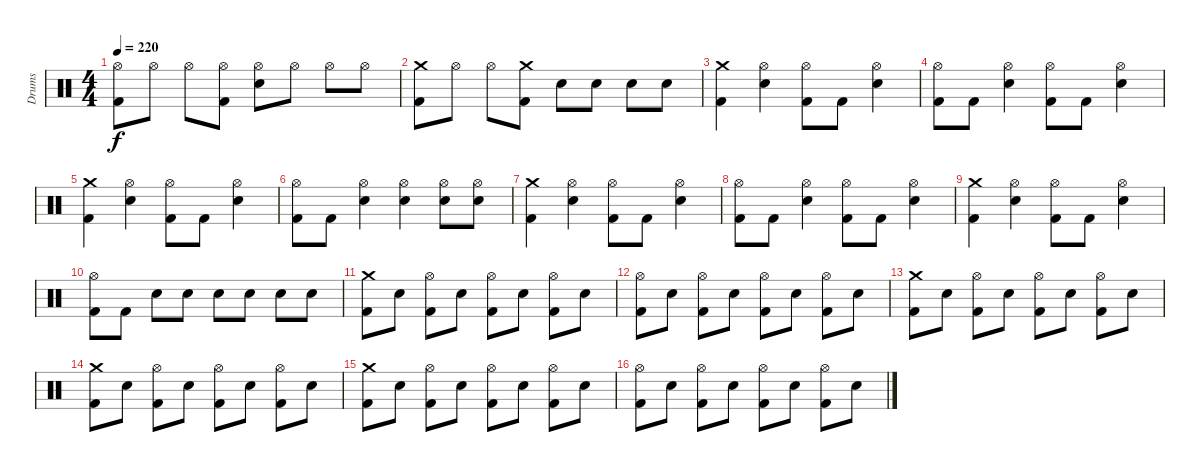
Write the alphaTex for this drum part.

\track ("Drums" "Drums") {instrument percussion}
\staff {score}
\articulation defaults
\ts (4 4)
\tempo 220
\clef neutral
\ks c
("Kick (hit) 2" "Hi-Hat (open)").8{dy f} "Hi-Hat (open)".8 "Hi-Hat (open)".8 ("Kick (hit) 2" "Hi-Hat (open)").8 ("Electric Snare (hit)" "Hi-Hat (open)").8 "Hi-Hat (open)".8 "Hi-Hat (open)".8 "Hi-Hat (open)".8 |
("Kick (hit) 2" "Crash medium (hit)").8 "Hi-Hat (open)".8 "Hi-Hat (open)".8 ("Kick (hit) 2" "Crash medium (hit)").8 "Electric Snare (hit)".8 "Electric Snare (hit)".8 "Electric Snare (hit)".8 "Electric Snare (hit)".8 |
("Crash medium (hit)" "Kick (hit) 2").4 ("Hi-Hat (open)" "Electric Snare (hit)").4 ("Hi-Hat (open)" "Kick (hit) 2").8 "Kick (hit) 2".8 ("Hi-Hat (open)" "Electric Snare (hit)").4 |
("Hi-Hat (open)" "Kick (hit) 2").8 "Kick (hit) 2".8 ("Hi-Hat (open)" "Electric Snare (hit)").4 ("Hi-Hat (open)" "Kick (hit) 2").8 "Kick (hit) 2".8 ("Hi-Hat (open)" "Electric Snare (hit)").4 |
("Crash medium (hit)" "Kick (hit) 2").4 ("Hi-Hat (open)" "Electric Snare (hit)").4 ("Hi-Hat (open)" "Kick (hit) 2").8 "Kick (hit) 2".8 ("Hi-Hat (open)" "Electric Snare (hit)").4 |
("Hi-Hat (open)" "Kick (hit) 2").8 "Kick (hit) 2".8 ("Hi-Hat (open)" "Electric Snare (hit)").4 ("Hi-Hat (open)" "Electric Snare (hit)").4 ("Hi-Hat (open)" "Electric Snare (hit)").8 ("Hi-Hat (open)" "Electric Snare (hit)").8 |
("Crash medium (hit)" "Kick (hit) 2").4 ("Hi-Hat (open)" "Electric Snare (hit)").4 ("Hi-Hat (open)" "Kick (hit) 2").8 "Kick (hit) 2".8 ("Hi-Hat (open)" "Electric Snare (hit)").4 |
("Hi-Hat (open)" "Kick (hit) 2").8 "Kick (hit) 2".8 ("Hi-Hat (open)" "Electric Snare (hit)").4 ("Hi-Hat (open)" "Kick (hit) 2").8 "Kick (hit) 2".8 ("Hi-Hat (open)" "Electric Snare (hit)").4 |
("Crash medium (hit)" "Kick (hit) 2").4 ("Hi-Hat (open)" "Electric Snare (hit)").4 ("Hi-Hat (open)" "Kick (hit) 2").8 "Kick (hit) 2".8 ("Hi-Hat (open)" "Electric Snare (hit)").4 |
("Hi-Hat (open)" "Kick (hit) 2").8 "Kick (hit) 2".8 "Electric Snare (hit)".8 "Electric Snare (hit)".8 "Electric Snare (hit)".8 "Electric Snare (hit)".8 "Electric Snare (hit)".8 "Electric Snare (hit)".8 |
("Crash medium (hit)" "Kick (hit) 2").8 "Electric Snare (hit)".8 ("Hi-Hat (open)" "Kick (hit) 2").8 "Electric Snare (hit)".8 ("Hi-Hat (open)" "Kick (hit) 2").8 "Electric Snare (hit)".8 ("Hi-Hat (open)" "Kick (hit) 2").8 "Electric Snare (hit)".8 |
("Hi-Hat (open)" "Kick (hit) 2").8 "Electric Snare (hit)".8 ("Hi-Hat (open)" "Kick (hit) 2").8 "Electric Snare (hit)".8 ("Hi-Hat (open)" "Kick (hit) 2").8 "Electric Snare (hit)".8 ("Hi-Hat (open)" "Kick (hit) 2").8 "Electric Snare (hit)".8 |
("Crash medium (hit)" "Kick (hit) 2").8 "Electric Snare (hit)".8 ("Hi-Hat (open)" "Kick (hit) 2").8 "Electric Snare (hit)".8 ("Hi-Hat (open)" "Kick (hit) 2").8 "Electric Snare (hit)".8 ("Hi-Hat (open)" "Kick (hit) 2").8 "Electric Snare (hit)".8 |
("Crash medium (hit)" "Kick (hit) 2").8 "Electric Snare (hit)".8 ("Hi-Hat (open)" "Kick (hit) 2").8 "Electric Snare (hit)".8 ("Hi-Hat (open)" "Kick (hit) 2").8 "Electric Snare (hit)".8 ("Hi-Hat (open)" "Kick (hit) 2").8 "Electric Snare (hit)".8 |
("Crash medium (hit)" "Kick (hit) 2").8 "Electric Snare (hit)".8 ("Hi-Hat (open)" "Kick (hit) 2").8 "Electric Snare (hit)".8 ("Hi-Hat (open)" "Kick (hit) 2").8 "Electric Snare (hit)".8 ("Hi-Hat (open)" "Kick (hit) 2").8 "Electric Snare (hit)".8 |
("Hi-Hat (open)" "Kick (hit) 2").8 "Electric Snare (hit)".8 ("Hi-Hat (open)" "Kick (hit) 2").8 "Electric Snare (hit)".8 ("Hi-Hat (open)" "Kick (hit) 2").8 "Electric Snare (hit)".8 ("Hi-Hat (open)" "Kick (hit) 2").8 "Electric Snare (hit)".8
